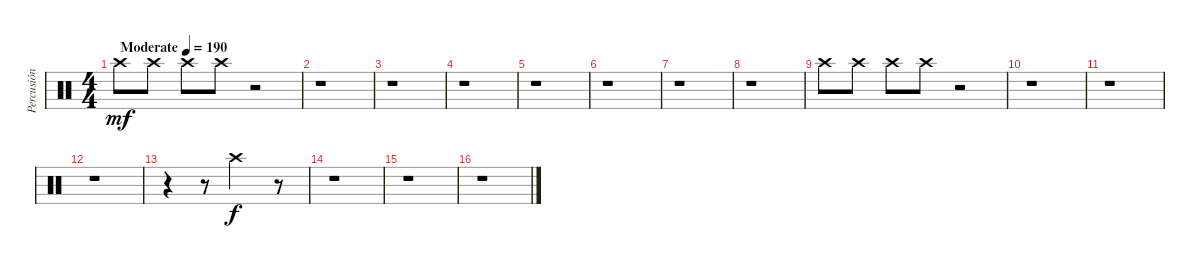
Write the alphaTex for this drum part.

\track ("Percusión" "Percusión") {instrument percussion}
\staff {score}
\articulation defaults
\ts (4 4)
\tempo (190 "Moderate")
\clef neutral
\ks c "Crash high (hit)".8{dy mf} "Crash high (hit)".8 "Crash high (hit)".8 "Crash high (hit)".8
r.2 |
r.1 |
r.1 |
r.1 |
r.1 |
r.1 |
r.1 |
r.1 |
"Crash high (hit)".8 "Crash high (hit)".8 "Crash high (hit)".8 "Crash high (hit)".8 r.2 |
r.1 |
r.1 |
r.1 |
r.4 r.8 "Crash high (hit)".2{dy f} r.8 |
r.1 |
r.1 |
r.1
